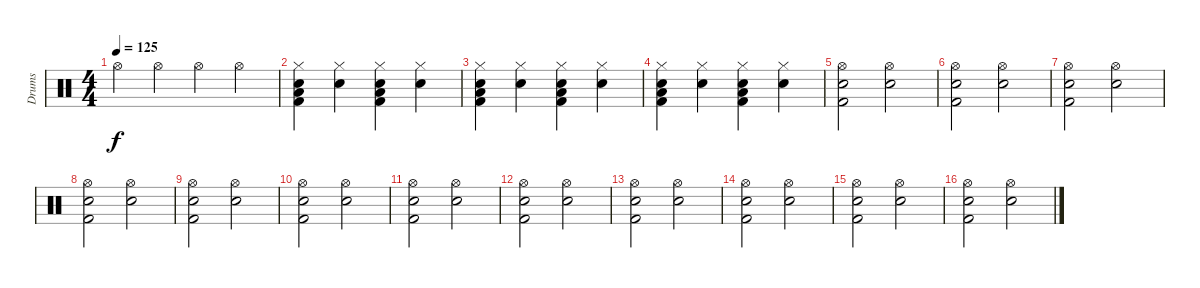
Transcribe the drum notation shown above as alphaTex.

\track ("Drums" "Drums") {instrument percussion}
\staff {score}
\articulation defaults
\ts (4 4)
\tempo 125
\clef neutral
\ks c "Hi-Hat (open)".4{dy f} "Hi-Hat (open)".4 "Hi-Hat (open)".4 "Hi-Hat (open)".4
|
("Hi-Hat (closed)" "Low Tom (hit)" "Electric Snare (hit)" "Kick (hit) 2").4 ("Hi-Hat (closed)" "Electric Snare (hit)").4 ("Hi-Hat (closed)" "Low Tom (hit)" "Electric Snare (hit)" "Kick (hit) 2").4 ("Hi-Hat (closed)" "Electric Snare (hit)").4 |
("Hi-Hat (closed)" "Low Tom (hit)" "Electric Snare (hit)" "Kick (hit) 2").4 ("Hi-Hat (closed)" "Electric Snare (hit)").4 ("Hi-Hat (closed)" "Low Tom (hit)" "Electric Snare (hit)" "Kick (hit) 2").4 ("Hi-Hat (closed)" "Electric Snare (hit)").4 |
("Hi-Hat (closed)" "Low Tom (hit)" "Electric Snare (hit)" "Kick (hit) 2").4 ("Hi-Hat (closed)" "Electric Snare (hit)").4 ("Hi-Hat (closed)" "Low Tom (hit)" "Electric Snare (hit)" "Kick (hit) 2").4 ("Hi-Hat (closed)" "Electric Snare (hit)").4 |
("Hi-Hat (open)" "Electric Snare (hit)" "Kick (hit) 2").2 ("Hi-Hat (open)" "Electric Snare (hit)").2 |
("Hi-Hat (open)" "Electric Snare (hit)" "Kick (hit) 2").2 ("Hi-Hat (open)" "Electric Snare (hit)").2 |
("Hi-Hat (open)" "Electric Snare (hit)" "Kick (hit) 2").2 ("Hi-Hat (open)" "Electric Snare (hit)").2 |
("Hi-Hat (open)" "Electric Snare (hit)" "Kick (hit) 2").2 ("Hi-Hat (open)" "Electric Snare (hit)").2 |
("Hi-Hat (open)" "Electric Snare (hit)" "Kick (hit) 2").2 ("Hi-Hat (open)" "Electric Snare (hit)").2 |
("Hi-Hat (open)" "Electric Snare (hit)" "Kick (hit) 2").2 ("Hi-Hat (open)" "Electric Snare (hit)").2 |
("Hi-Hat (open)" "Electric Snare (hit)" "Kick (hit) 2").2 ("Hi-Hat (open)" "Electric Snare (hit)").2 |
("Hi-Hat (open)" "Electric Snare (hit)" "Kick (hit) 2").2 ("Hi-Hat (open)" "Electric Snare (hit)").2 |
("Hi-Hat (open)" "Electric Snare (hit)" "Kick (hit) 2").2 ("Hi-Hat (open)" "Electric Snare (hit)").2 |
("Hi-Hat (open)" "Electric Snare (hit)" "Kick (hit) 2").2 ("Hi-Hat (open)" "Electric Snare (hit)").2 |
("Hi-Hat (open)" "Electric Snare (hit)" "Kick (hit) 2").2 ("Hi-Hat (open)" "Electric Snare (hit)").2 |
("Hi-Hat (open)" "Electric Snare (hit)" "Kick (hit) 2").2 ("Hi-Hat (open)" "Electric Snare (hit)").2
